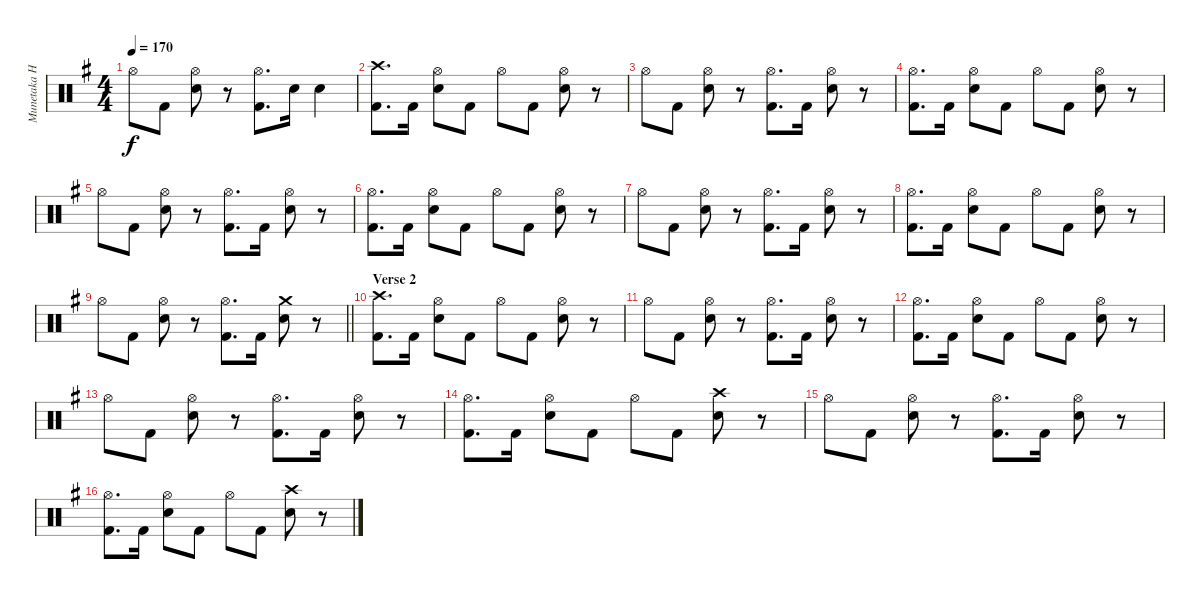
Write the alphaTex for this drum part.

\track ("Munetaka Higuchi" "Munetaka H") {instrument percussion}
\staff {score}
\articulation defaults
\ts (4 4)
\tempo 170
\clef neutral
\ks eminor "Hi-Hat (open)".8{dy f} "Kick (hit) 2".8
("Hi-Hat (open)" "Electric Snare (hit)").8 r.8 ("Hi-Hat (open)" "Kick (hit) 2").8{d} "Electric Snare (hit)".16 "Electric Snare (hit)".4 |
("Crash high (hit)" "Kick (hit) 2").8{d} "Kick (hit) 2".16 ("Hi-Hat (open)" "Electric Snare (hit)").8 "Kick (hit) 2".8 "Hi-Hat (open)".8 "Kick (hit) 2".8 ("Hi-Hat (open)" "Electric Snare (hit)").8 r.8 |
"Hi-Hat (open)".8 "Kick (hit) 2".8 ("Hi-Hat (open)" "Electric Snare (hit)").8 r.8 ("Hi-Hat (open)" "Kick (hit) 2").8{d} "Kick (hit) 2".16 ("Hi-Hat (open)" "Electric Snare (hit)").8 r.8 |
("Hi-Hat (open)" "Kick (hit) 2").8{d} "Kick (hit) 2".16 ("Hi-Hat (open)" "Electric Snare (hit)").8 "Kick (hit) 2".8 "Hi-Hat (open)".8 "Kick (hit) 2".8 ("Hi-Hat (open)" "Electric Snare (hit)").8 r.8 |
"Hi-Hat (open)".8 "Kick (hit) 2".8 ("Hi-Hat (open)" "Electric Snare (hit)").8 r.8 ("Hi-Hat (open)" "Kick (hit) 2").8{d} "Kick (hit) 2".16 ("Hi-Hat (open)" "Electric Snare (hit)").8 r.8 |
("Hi-Hat (open)" "Kick (hit) 2").8{d} "Kick (hit) 2".16 ("Hi-Hat (open)" "Electric Snare (hit)").8 "Kick (hit) 2".8 "Hi-Hat (open)".8 "Kick (hit) 2".8 ("Hi-Hat (open)" "Electric Snare (hit)").8 r.8 |
"Hi-Hat (open)".8 "Kick (hit) 2".8 ("Hi-Hat (open)" "Electric Snare (hit)").8 r.8 ("Hi-Hat (open)" "Kick (hit) 2").8{d} "Kick (hit) 2".16 ("Hi-Hat (open)" "Electric Snare (hit)").8 r.8 |
("Hi-Hat (open)" "Kick (hit) 2").8{d} "Kick (hit) 2".16 ("Hi-Hat (open)" "Electric Snare (hit)").8 "Kick (hit) 2".8 "Hi-Hat (open)".8 "Kick (hit) 2".8 ("Hi-Hat (open)" "Electric Snare (hit)").8 r.8 |
\barLineRight lightlight "Hi-Hat (open)".8 "Kick (hit) 2".8
("Hi-Hat (open)" "Electric Snare (hit)").8 r.8 ("Hi-Hat (open)" "Kick (hit) 2").8{d} "Kick (hit) 2".16 ("Crash medium (hit)" "Electric Snare (hit)").8 r.8 |
\section ("" "Verse 2")
("Crash high (hit)" "Kick (hit) 2").8{d} "Kick (hit) 2".16 ("Hi-Hat (open)" "Electric Snare (hit)").8 "Kick (hit) 2".8 "Hi-Hat (open)".8 "Kick (hit) 2".8 ("Hi-Hat (open)" "Electric Snare (hit)").8 r.8 |
"Hi-Hat (open)".8 "Kick (hit) 2".8 ("Hi-Hat (open)" "Electric Snare (hit)").8 r.8 ("Hi-Hat (open)" "Kick (hit) 2").8{d} "Kick (hit) 2".16 ("Hi-Hat (open)" "Electric Snare (hit)").8 r.8 |
("Hi-Hat (open)" "Kick (hit) 2").8{d} "Kick (hit) 2".16 ("Hi-Hat (open)" "Electric Snare (hit)").8 "Kick (hit) 2".8 "Hi-Hat (open)".8 "Kick (hit) 2".8 ("Hi-Hat (open)" "Electric Snare (hit)").8 r.8 |
"Hi-Hat (open)".8 "Kick (hit) 2".8 ("Hi-Hat (open)" "Electric Snare (hit)").8 r.8 ("Hi-Hat (open)" "Kick (hit) 2").8{d} "Kick (hit) 2".16 ("Hi-Hat (open)" "Electric Snare (hit)").8 r.8 |
("Hi-Hat (open)" "Kick (hit) 2").8{d} "Kick (hit) 2".16 ("Hi-Hat (open)" "Electric Snare (hit)").8 "Kick (hit) 2".8 "Hi-Hat (open)".8 "Kick (hit) 2".8 ("Crash high (hit)" "Electric Snare (hit)").8 r.8 |
"Hi-Hat (open)".8 "Kick (hit) 2".8 ("Hi-Hat (open)" "Electric Snare (hit)").8 r.8 ("Hi-Hat (open)" "Kick (hit) 2").8{d} "Kick (hit) 2".16 ("Hi-Hat (open)" "Electric Snare (hit)").8 r.8 |
("Hi-Hat (open)" "Kick (hit) 2").8{d} "Kick (hit) 2".16 ("Hi-Hat (open)" "Electric Snare (hit)").8 "Kick (hit) 2".8 "Hi-Hat (open)".8 "Kick (hit) 2".8 ("Crash high (hit)" "Electric Snare (hit)").8 r.8
